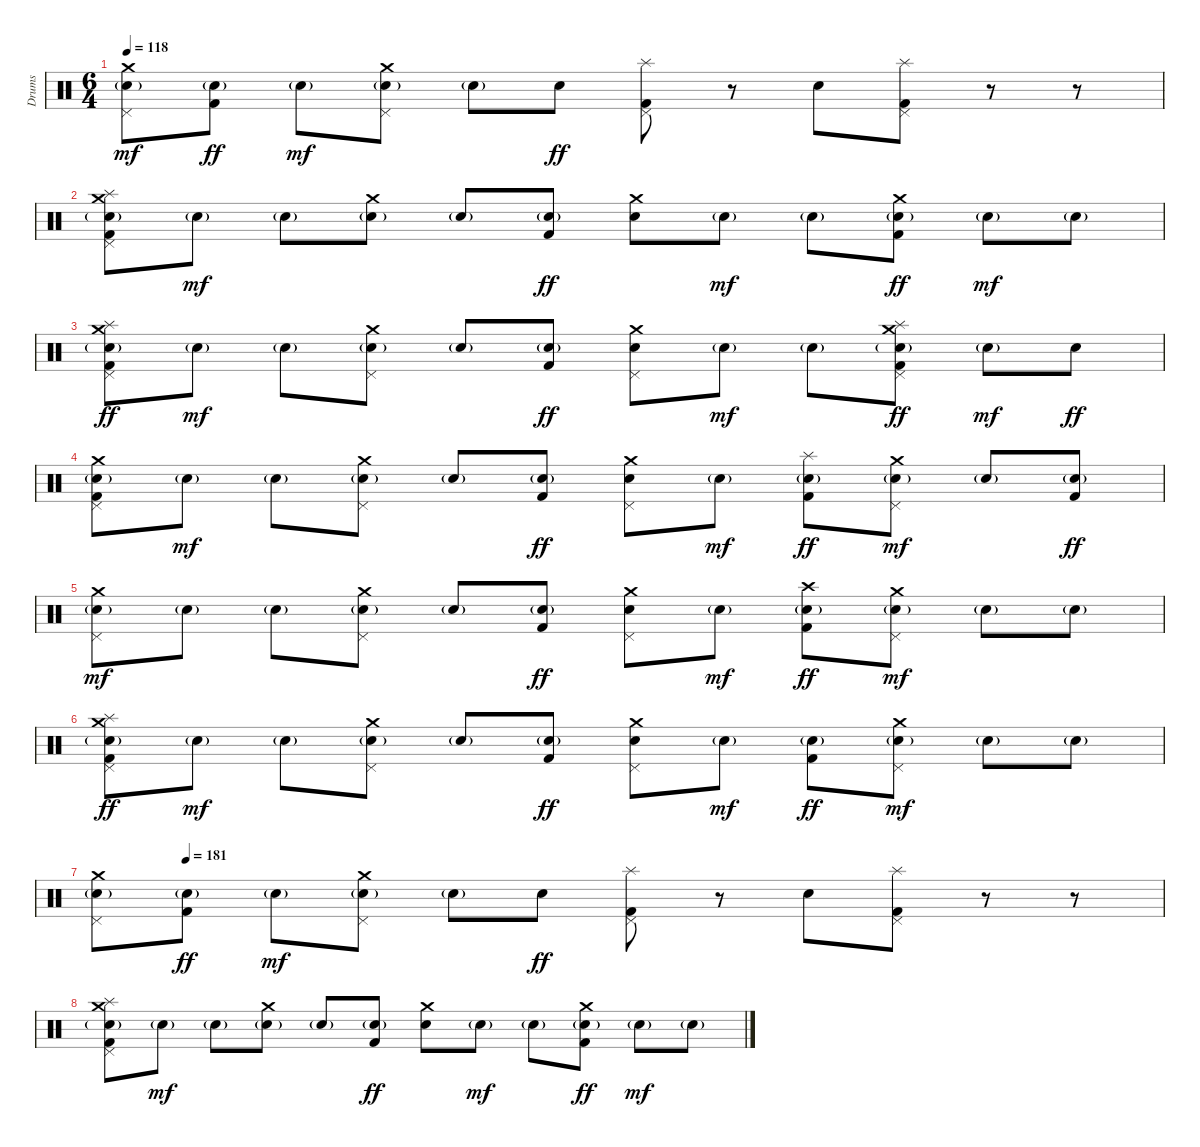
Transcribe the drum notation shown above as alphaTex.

\track ("Drums" "Drums") {instrument percussion}
\staff {score}
\articulation defaults
\ts (6 4)
\tempo 118
\clef neutral
\ks c
("Crash medium (hit)" "Pedal Hi-Hat (hit)" "Electric Snare (hit)"{g}).8{dy mf} ("Electric Snare (hit)"{g} "Kick (hit) 2").8{dy ff} "Electric Snare (hit)"{g}.8{dy mf} ("Crash medium (hit)" "Pedal Hi-Hat (hit)" "Electric Snare (hit)"{g}).8 "Electric Snare (hit)"{g}.8 "Electric Snare (hit)".8{dy ff} ("Splash (hit)" "Pedal Hi-Hat (hit)" "Kick (hit) 2").8 r.8 "Electric Snare (hit)".8 ("Splash (hit)" "Pedal Hi-Hat (hit)" "Kick (hit) 2").8 r.8 r.8 |
("Crash medium (hit)" "Splash (hit)" "Pedal Hi-Hat (hit)" "Electric Snare (hit)"{g} "Kick (hit) 2").8 "Electric Snare (hit)"{g}.8{dy mf} "Electric Snare (hit)"{g}.8 ("Crash medium (hit)" "Electric Snare (hit)"{g}).8 "Electric Snare (hit)"{g}.8 ("Electric Snare (hit)"{g} "Kick (hit) 2").8{dy ff} ("Crash medium (hit)" "Electric Snare (hit)").8 "Electric Snare (hit)"{g}.8{dy mf} "Electric Snare (hit)"{g}.8 ("Crash medium (hit)" "Electric Snare (hit)"{g} "Kick (hit) 2").8{dy ff} "Electric Snare (hit)"{g}.8{dy mf} "Electric Snare (hit)"{g}.8 |
("Crash medium (hit)" "Splash (hit)" "Pedal Hi-Hat (hit)" "Electric Snare (hit)"{g} "Kick (hit) 2").8{dy ff} "Electric Snare (hit)"{g}.8{dy mf} "Electric Snare (hit)"{g}.8 ("Crash medium (hit)" "Pedal Hi-Hat (hit)" "Electric Snare (hit)"{g}).8 "Electric Snare (hit)"{g}.8 ("Electric Snare (hit)"{g} "Kick (hit) 2").8{dy ff} ("Crash medium (hit)" "Pedal Hi-Hat (hit)" "Electric Snare (hit)").8 "Electric Snare (hit)"{g}.8{dy mf} "Electric Snare (hit)"{g}.8 ("Crash medium (hit)" "Splash (hit)" "Pedal Hi-Hat (hit)" "Electric Snare (hit)"{g} "Kick (hit) 2").8{dy ff} "Electric Snare (hit)"{g}.8{dy mf} "Electric Snare (hit)".8{dy ff} |
("Crash medium (hit)" "Pedal Hi-Hat (hit)" "Electric Snare (hit)"{g} "Kick (hit) 2").8 "Electric Snare (hit)"{g}.8{dy mf} "Electric Snare (hit)"{g}.8 ("Crash medium (hit)" "Pedal Hi-Hat (hit)" "Electric Snare (hit)"{g}).8 "Electric Snare (hit)"{g}.8 ("Electric Snare (hit)"{g} "Kick (hit) 2").8{dy ff} ("Crash medium (hit)" "Pedal Hi-Hat (hit)" "Electric Snare (hit)").8 "Electric Snare (hit)"{g}.8{dy mf} ("Splash (hit)" "Electric Snare (hit)"{g} "Kick (hit) 2").8{dy ff} ("Crash medium (hit)" "Pedal Hi-Hat (hit)" "Electric Snare (hit)"{g}).8{dy mf} "Electric Snare (hit)"{g}.8 ("Electric Snare (hit)"{g} "Kick (hit) 2").8{dy ff} |
("Crash medium (hit)" "Pedal Hi-Hat (hit)" "Electric Snare (hit)"{g}).8{dy mf} "Electric Snare (hit)"{g}.8 "Electric Snare (hit)"{g}.8 ("Crash medium (hit)" "Pedal Hi-Hat (hit)" "Electric Snare (hit)"{g}).8 "Electric Snare (hit)"{g}.8 ("Electric Snare (hit)"{g} "Kick (hit) 2").8{dy ff} ("Crash medium (hit)" "Pedal Hi-Hat (hit)" "Electric Snare (hit)").8 "Electric Snare (hit)"{g}.8{dy mf} ("Crash high (hit)" "Electric Snare (hit)"{g} "Kick (hit) 2").8{dy ff} ("Crash medium (hit)" "Pedal Hi-Hat (hit)" "Electric Snare (hit)"{g}).8{dy mf} "Electric Snare (hit)"{g}.8 "Electric Snare (hit)"{g}.8 |
("Crash medium (hit)" "Splash (hit)" "Pedal Hi-Hat (hit)" "Electric Snare (hit)"{g} "Kick (hit) 2").8{dy ff} "Electric Snare (hit)"{g}.8{dy mf} "Electric Snare (hit)"{g}.8 ("Crash medium (hit)" "Pedal Hi-Hat (hit)" "Electric Snare (hit)"{g}).8 "Electric Snare (hit)"{g}.8 ("Electric Snare (hit)"{g} "Kick (hit) 2").8{dy ff} ("Crash medium (hit)" "Pedal Hi-Hat (hit)" "Electric Snare (hit)").8 "Electric Snare (hit)"{g}.8{dy mf} ("Electric Snare (hit)"{g} "Kick (hit) 2").8{dy ff} ("Crash medium (hit)" "Pedal Hi-Hat (hit)" "Electric Snare (hit)"{g}).8{dy mf} "Electric Snare (hit)"{g}.8 "Electric Snare (hit)"{g}.8 |
\tempo (181 0.08333333333333333)
("Crash medium (hit)" "Pedal Hi-Hat (hit)" "Electric Snare (hit)"{g}).8 ("Electric Snare (hit)"{g} "Kick (hit) 2").8{dy ff} "Electric Snare (hit)"{g}.8{dy mf} ("Crash medium (hit)" "Pedal Hi-Hat (hit)" "Electric Snare (hit)"{g}).8 "Electric Snare (hit)"{g}.8 "Electric Snare (hit)".8{dy ff} ("Splash (hit)" "Pedal Hi-Hat (hit)" "Kick (hit) 2").8 r.8 "Electric Snare (hit)".8 ("Splash (hit)" "Pedal Hi-Hat (hit)" "Kick (hit) 2").8 r.8 r.8 |
("Crash medium (hit)" "Splash (hit)" "Pedal Hi-Hat (hit)" "Electric Snare (hit)"{g} "Kick (hit) 2").8 "Electric Snare (hit)"{g}.8{dy mf} "Electric Snare (hit)"{g}.8 ("Crash medium (hit)" "Electric Snare (hit)"{g}).8 "Electric Snare (hit)"{g}.8 ("Electric Snare (hit)"{g} "Kick (hit) 2").8{dy ff} ("Crash medium (hit)" "Electric Snare (hit)").8 "Electric Snare (hit)"{g}.8{dy mf} "Electric Snare (hit)"{g}.8 ("Crash medium (hit)" "Electric Snare (hit)"{g} "Kick (hit) 2").8{dy ff} "Electric Snare (hit)"{g}.8{dy mf} "Electric Snare (hit)"{g}.8
